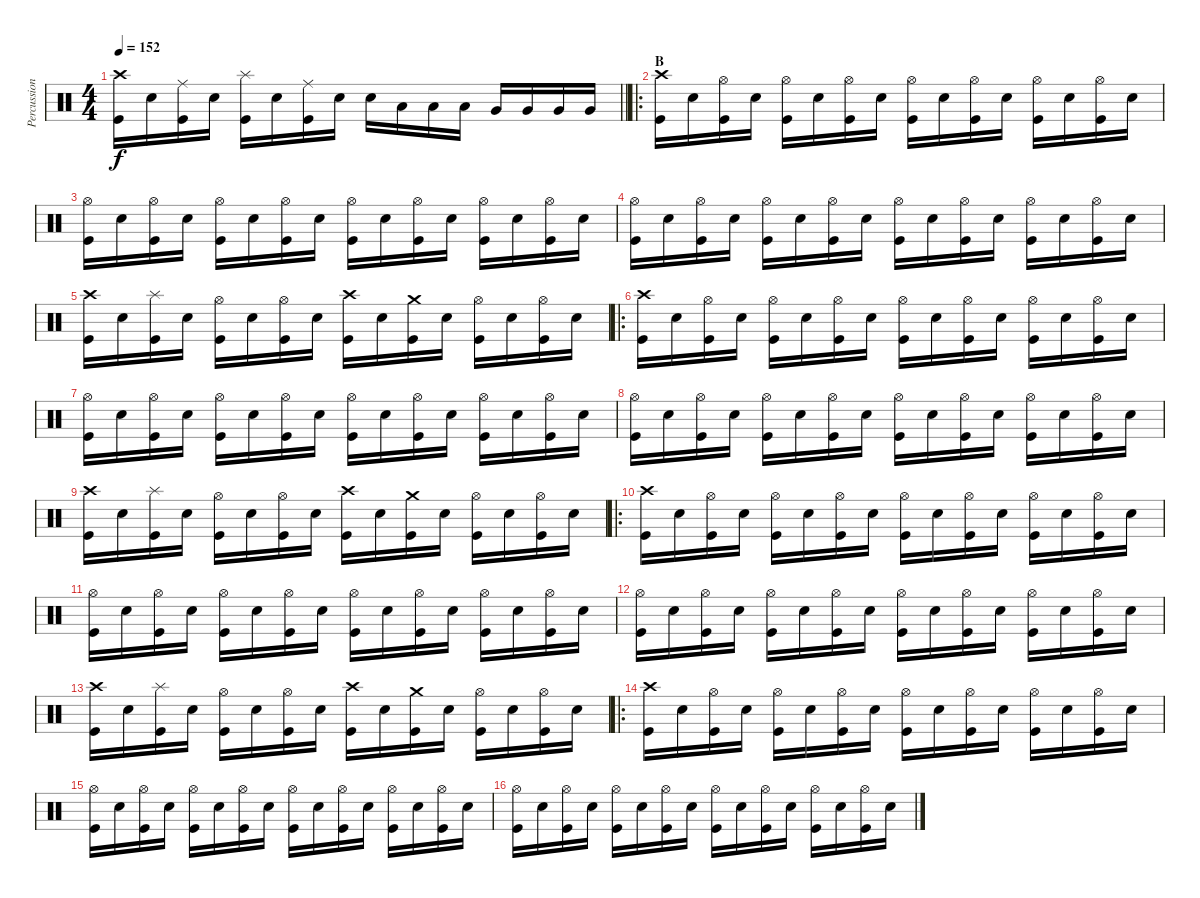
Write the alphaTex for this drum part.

\track ("Percussion" "Percussion") {instrument percussion}
\staff {score}
\articulation defaults
\ts (4 4)
\tempo 152
\clef neutral
\barLineRight lightlight
\ks c
("Crash high (hit)" "Kick (hit)").16{dy f} "Snare (hit) 2".16 ("Ride (middle)" "Kick (hit)").16 "Snare (hit) 2".16 ("Splash (hit)" "Kick (hit)").16 "Snare (hit) 2".16 ("Ride (middle)" "Kick (hit)").16 "Snare (hit) 2".16 "Snare (hit) 2".16 "Low Tom (hit)".16 "Low Tom (hit)".16 "Low Tom (hit)".16 "Very Low Tom (hit)".16 "Very Low Tom (hit)".16 "Very Low Tom (hit)".16 "Very Low Tom (hit)".16 |
\ro
\section ("" "B")
("Crash high (hit)" "Kick (hit)").16 "Snare (hit) 2".16 ("Hi-Hat (open)" "Kick (hit)").16 "Snare (hit) 2".16 ("Hi-Hat (open)" "Kick (hit)").16 "Snare (hit) 2".16 ("Hi-Hat (open)" "Kick (hit)").16 "Snare (hit) 2".16 ("Hi-Hat (open)" "Kick (hit)").16 "Snare (hit) 2".16 ("Hi-Hat (open)" "Kick (hit)").16 "Snare (hit) 2".16 ("Hi-Hat (open)" "Kick (hit)").16 "Snare (hit) 2".16 ("Hi-Hat (open)" "Kick (hit)").16 "Snare (hit) 2".16 |
("Hi-Hat (open)" "Kick (hit)").16 "Snare (hit) 2".16 ("Hi-Hat (open)" "Kick (hit)").16 "Snare (hit) 2".16 ("Hi-Hat (open)" "Kick (hit)").16 "Snare (hit) 2".16 ("Hi-Hat (open)" "Kick (hit)").16 "Snare (hit) 2".16 ("Hi-Hat (open)" "Kick (hit)").16 "Snare (hit) 2".16 ("Hi-Hat (open)" "Kick (hit)").16 "Snare (hit) 2".16 ("Hi-Hat (open)" "Kick (hit)").16 "Snare (hit) 2".16 ("Hi-Hat (open)" "Kick (hit)").16 "Snare (hit) 2".16 |
("Hi-Hat (open)" "Kick (hit)").16 "Snare (hit) 2".16 ("Hi-Hat (open)" "Kick (hit)").16 "Snare (hit) 2".16 ("Hi-Hat (open)" "Kick (hit)").16 "Snare (hit) 2".16 ("Hi-Hat (open)" "Kick (hit)").16 "Snare (hit) 2".16 ("Hi-Hat (open)" "Kick (hit)").16 "Snare (hit) 2".16 ("Hi-Hat (open)" "Kick (hit)").16 "Snare (hit) 2".16 ("Hi-Hat (open)" "Kick (hit)").16 "Snare (hit) 2".16 ("Hi-Hat (open)" "Kick (hit)").16 "Snare (hit) 2".16 |
("Crash high (hit)" "Kick (hit)").16 "Snare (hit) 2".16 ("Splash (hit)" "Kick (hit)").16 "Snare (hit) 2".16 ("Hi-Hat (open)" "Kick (hit)").16 "Snare (hit) 2".16 ("Hi-Hat (open)" "Kick (hit)").16 "Snare (hit) 2".16 ("Crash high (hit)" "Kick (hit)").16 "Snare (hit) 2".16 ("Crash medium (hit)" "Kick (hit)").16 "Snare (hit) 2".16 ("Hi-Hat (open)" "Kick (hit)").16 "Snare (hit) 2".16 ("Hi-Hat (open)" "Kick (hit)").16 "Snare (hit) 2".16 |
\ro
("Crash high (hit)" "Kick (hit)").16 "Snare (hit) 2".16 ("Hi-Hat (open)" "Kick (hit)").16 "Snare (hit) 2".16 ("Hi-Hat (open)" "Kick (hit)").16 "Snare (hit) 2".16 ("Hi-Hat (open)" "Kick (hit)").16 "Snare (hit) 2".16 ("Hi-Hat (open)" "Kick (hit)").16 "Snare (hit) 2".16 ("Hi-Hat (open)" "Kick (hit)").16 "Snare (hit) 2".16 ("Hi-Hat (open)" "Kick (hit)").16 "Snare (hit) 2".16 ("Hi-Hat (open)" "Kick (hit)").16 "Snare (hit) 2".16 |
("Hi-Hat (open)" "Kick (hit)").16 "Snare (hit) 2".16 ("Hi-Hat (open)" "Kick (hit)").16 "Snare (hit) 2".16 ("Hi-Hat (open)" "Kick (hit)").16 "Snare (hit) 2".16 ("Hi-Hat (open)" "Kick (hit)").16 "Snare (hit) 2".16 ("Hi-Hat (open)" "Kick (hit)").16 "Snare (hit) 2".16 ("Hi-Hat (open)" "Kick (hit)").16 "Snare (hit) 2".16 ("Hi-Hat (open)" "Kick (hit)").16 "Snare (hit) 2".16 ("Hi-Hat (open)" "Kick (hit)").16 "Snare (hit) 2".16 |
("Hi-Hat (open)" "Kick (hit)").16 "Snare (hit) 2".16 ("Hi-Hat (open)" "Kick (hit)").16 "Snare (hit) 2".16 ("Hi-Hat (open)" "Kick (hit)").16 "Snare (hit) 2".16 ("Hi-Hat (open)" "Kick (hit)").16 "Snare (hit) 2".16 ("Hi-Hat (open)" "Kick (hit)").16 "Snare (hit) 2".16 ("Hi-Hat (open)" "Kick (hit)").16 "Snare (hit) 2".16 ("Hi-Hat (open)" "Kick (hit)").16 "Snare (hit) 2".16 ("Hi-Hat (open)" "Kick (hit)").16 "Snare (hit) 2".16 |
("Crash high (hit)" "Kick (hit)").16 "Snare (hit) 2".16 ("Splash (hit)" "Kick (hit)").16 "Snare (hit) 2".16 ("Hi-Hat (open)" "Kick (hit)").16 "Snare (hit) 2".16 ("Hi-Hat (open)" "Kick (hit)").16 "Snare (hit) 2".16 ("Crash high (hit)" "Kick (hit)").16 "Snare (hit) 2".16 ("Crash medium (hit)" "Kick (hit)").16 "Snare (hit) 2".16 ("Hi-Hat (open)" "Kick (hit)").16 "Snare (hit) 2".16 ("Hi-Hat (open)" "Kick (hit)").16 "Snare (hit) 2".16 |
\ro
("Crash high (hit)" "Kick (hit)").16 "Snare (hit) 2".16 ("Hi-Hat (open)" "Kick (hit)").16 "Snare (hit) 2".16 ("Hi-Hat (open)" "Kick (hit)").16 "Snare (hit) 2".16 ("Hi-Hat (open)" "Kick (hit)").16 "Snare (hit) 2".16 ("Hi-Hat (open)" "Kick (hit)").16 "Snare (hit) 2".16 ("Hi-Hat (open)" "Kick (hit)").16 "Snare (hit) 2".16 ("Hi-Hat (open)" "Kick (hit)").16 "Snare (hit) 2".16 ("Hi-Hat (open)" "Kick (hit)").16 "Snare (hit) 2".16 |
("Hi-Hat (open)" "Kick (hit)").16 "Snare (hit) 2".16 ("Hi-Hat (open)" "Kick (hit)").16 "Snare (hit) 2".16 ("Hi-Hat (open)" "Kick (hit)").16 "Snare (hit) 2".16 ("Hi-Hat (open)" "Kick (hit)").16 "Snare (hit) 2".16 ("Hi-Hat (open)" "Kick (hit)").16 "Snare (hit) 2".16 ("Hi-Hat (open)" "Kick (hit)").16 "Snare (hit) 2".16 ("Hi-Hat (open)" "Kick (hit)").16 "Snare (hit) 2".16 ("Hi-Hat (open)" "Kick (hit)").16 "Snare (hit) 2".16 |
("Hi-Hat (open)" "Kick (hit)").16 "Snare (hit) 2".16 ("Hi-Hat (open)" "Kick (hit)").16 "Snare (hit) 2".16 ("Hi-Hat (open)" "Kick (hit)").16 "Snare (hit) 2".16 ("Hi-Hat (open)" "Kick (hit)").16 "Snare (hit) 2".16 ("Hi-Hat (open)" "Kick (hit)").16 "Snare (hit) 2".16 ("Hi-Hat (open)" "Kick (hit)").16 "Snare (hit) 2".16 ("Hi-Hat (open)" "Kick (hit)").16 "Snare (hit) 2".16 ("Hi-Hat (open)" "Kick (hit)").16 "Snare (hit) 2".16 |
("Crash high (hit)" "Kick (hit)").16 "Snare (hit) 2".16 ("Splash (hit)" "Kick (hit)").16 "Snare (hit) 2".16 ("Hi-Hat (open)" "Kick (hit)").16 "Snare (hit) 2".16 ("Hi-Hat (open)" "Kick (hit)").16 "Snare (hit) 2".16 ("Crash high (hit)" "Kick (hit)").16 "Snare (hit) 2".16 ("Crash medium (hit)" "Kick (hit)").16 "Snare (hit) 2".16 ("Hi-Hat (open)" "Kick (hit)").16 "Snare (hit) 2".16 ("Hi-Hat (open)" "Kick (hit)").16 "Snare (hit) 2".16 |
\ro
("Crash high (hit)" "Kick (hit)").16 "Snare (hit) 2".16 ("Hi-Hat (open)" "Kick (hit)").16 "Snare (hit) 2".16 ("Hi-Hat (open)" "Kick (hit)").16 "Snare (hit) 2".16 ("Hi-Hat (open)" "Kick (hit)").16 "Snare (hit) 2".16 ("Hi-Hat (open)" "Kick (hit)").16 "Snare (hit) 2".16 ("Hi-Hat (open)" "Kick (hit)").16 "Snare (hit) 2".16 ("Hi-Hat (open)" "Kick (hit)").16 "Snare (hit) 2".16 ("Hi-Hat (open)" "Kick (hit)").16 "Snare (hit) 2".16 |
("Hi-Hat (open)" "Kick (hit)").16 "Snare (hit) 2".16 ("Hi-Hat (open)" "Kick (hit)").16 "Snare (hit) 2".16 ("Hi-Hat (open)" "Kick (hit)").16 "Snare (hit) 2".16 ("Hi-Hat (open)" "Kick (hit)").16 "Snare (hit) 2".16 ("Hi-Hat (open)" "Kick (hit)").16 "Snare (hit) 2".16 ("Hi-Hat (open)" "Kick (hit)").16 "Snare (hit) 2".16 ("Hi-Hat (open)" "Kick (hit)").16 "Snare (hit) 2".16 ("Hi-Hat (open)" "Kick (hit)").16 "Snare (hit) 2".16 |
("Hi-Hat (open)" "Kick (hit)").16 "Snare (hit) 2".16 ("Hi-Hat (open)" "Kick (hit)").16 "Snare (hit) 2".16 ("Hi-Hat (open)" "Kick (hit)").16 "Snare (hit) 2".16 ("Hi-Hat (open)" "Kick (hit)").16 "Snare (hit) 2".16 ("Hi-Hat (open)" "Kick (hit)").16 "Snare (hit) 2".16 ("Hi-Hat (open)" "Kick (hit)").16 "Snare (hit) 2".16 ("Hi-Hat (open)" "Kick (hit)").16 "Snare (hit) 2".16 ("Hi-Hat (open)" "Kick (hit)").16 "Snare (hit) 2".16
